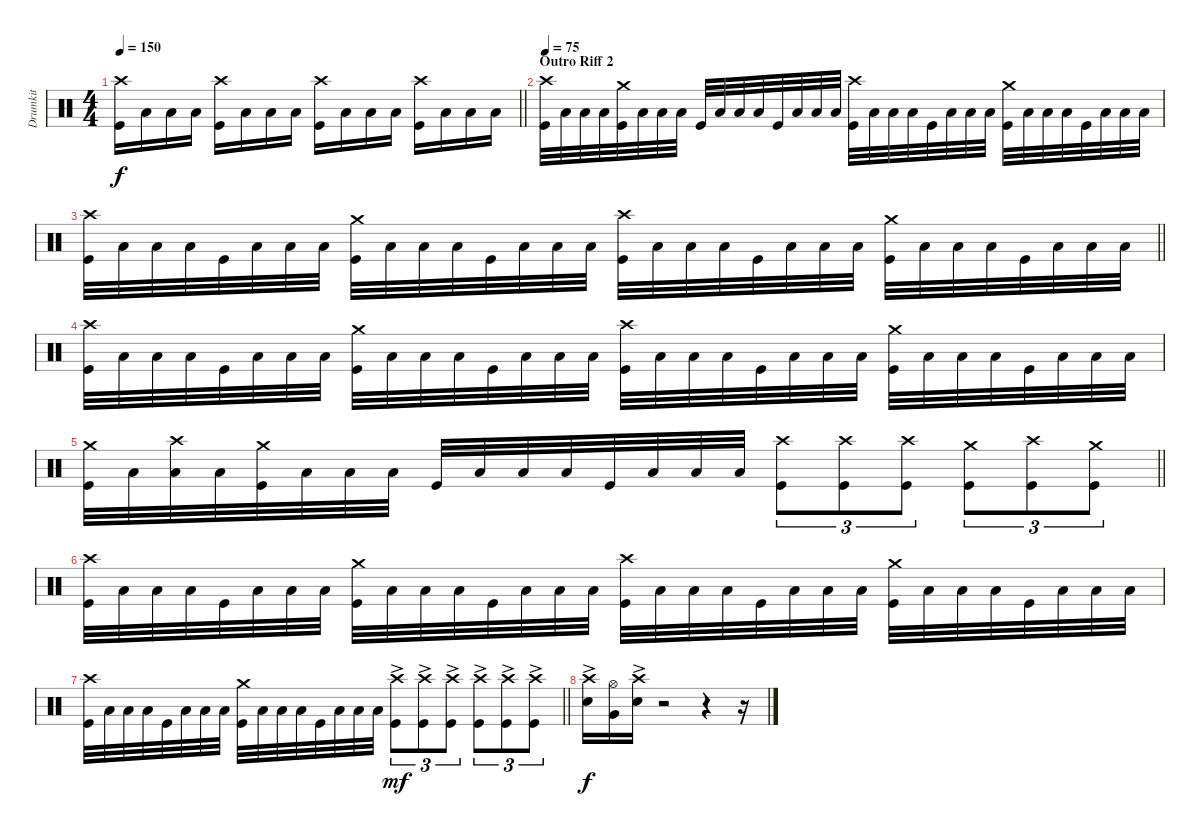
\track ("Drumkit" "Drumkit") {instrument percussion}
\staff {score}
\articulation defaults
\ts (4 4)
\tempo 150
\clef neutral
\barLineRight lightlight
\ks c
("Crash high (hit)" "Kick (hit)").16{dy f} "Low Tom (hit)".16 "Low Tom (hit)".16 "Low Tom (hit)".16 ("Crash high (hit)" "Kick (hit)").16 "Low Tom (hit)".16 "Low Tom (hit)".16 "Low Tom (hit)".16 ("Crash high (hit)" "Kick (hit)").16 "Low Tom (hit)".16 "Low Tom (hit)".16 "Low Tom (hit)".16 ("Crash high (hit)" "Kick (hit)").16 "Low Tom (hit)".16 "Low Tom (hit)".16 "Low Tom (hit)".16 |
\section ("" "Outro Riff 2")
\tempo 75
("Crash high (hit)" "Kick (hit)").32 "Low Tom (hit)".32 "Low Tom (hit)".32 "Low Tom (hit)".32 ("Crash medium (hit)" "Kick (hit)").32 "Low Tom (hit)".32 "Low Tom (hit)".32 "Low Tom (hit)".32 "Kick (hit)".32 "Low Tom (hit)".32 "Low Tom (hit)".32 "Low Tom (hit)".32 "Kick (hit)".32 "Low Tom (hit)".32 "Low Tom (hit)".32 "Low Tom (hit)".32 ("Crash high (hit)" "Kick (hit)").32 "Low Tom (hit)".32 "Low Tom (hit)".32 "Low Tom (hit)".32 "Kick (hit)".32 "Low Tom (hit)".32 "Low Tom (hit)".32 "Low Tom (hit)".32 ("Crash medium (hit)" "Kick (hit)").32 "Low Tom (hit)".32 "Low Tom (hit)".32 "Low Tom (hit)".32 "Kick (hit)".32 "Low Tom (hit)".32 "Low Tom (hit)".32 "Low Tom (hit)".32 |
\barLineRight lightlight
("Crash high (hit)" "Kick (hit)").32 "Low Tom (hit)".32 "Low Tom (hit)".32 "Low Tom (hit)".32 "Kick (hit)".32 "Low Tom (hit)".32 "Low Tom (hit)".32 "Low Tom (hit)".32 ("Crash medium (hit)" "Kick (hit)").32 "Low Tom (hit)".32 "Low Tom (hit)".32 "Low Tom (hit)".32 "Kick (hit)".32 "Low Tom (hit)".32 "Low Tom (hit)".32 "Low Tom (hit)".32 ("Crash high (hit)" "Kick (hit)").32 "Low Tom (hit)".32 "Low Tom (hit)".32 "Low Tom (hit)".32 "Kick (hit)".32 "Low Tom (hit)".32 "Low Tom (hit)".32 "Low Tom (hit)".32 ("Crash medium (hit)" "Kick (hit)").32 "Low Tom (hit)".32 "Low Tom (hit)".32 "Low Tom (hit)".32 "Kick (hit)".32 "Low Tom (hit)".32 "Low Tom (hit)".32 "Low Tom (hit)".32 |
("Crash high (hit)" "Kick (hit)").32 "Low Tom (hit)".32 "Low Tom (hit)".32 "Low Tom (hit)".32 "Kick (hit)".32 "Low Tom (hit)".32 "Low Tom (hit)".32 "Low Tom (hit)".32 ("Crash medium (hit)" "Kick (hit)").32 "Low Tom (hit)".32 "Low Tom (hit)".32 "Low Tom (hit)".32 "Kick (hit)".32 "Low Tom (hit)".32 "Low Tom (hit)".32 "Low Tom (hit)".32 ("Crash high (hit)" "Kick (hit)").32 "Low Tom (hit)".32 "Low Tom (hit)".32 "Low Tom (hit)".32 "Kick (hit)".32 "Low Tom (hit)".32 "Low Tom (hit)".32 "Low Tom (hit)".32 ("Crash medium (hit)" "Kick (hit)").32 "Low Tom (hit)".32 "Low Tom (hit)".32 "Low Tom (hit)".32 "Kick (hit)".32 "Low Tom (hit)".32 "Low Tom (hit)".32 "Low Tom (hit)".32 |
\barLineRight lightlight
("Crash medium (hit)" "Kick (hit)").32 "Low Tom (hit)".32 ("Crash high (hit)" "Low Tom (hit)").32 "Low Tom (hit)".32 ("Crash medium (hit)" "Kick (hit)").32 "Low Tom (hit)".32 "Low Tom (hit)".32 "Low Tom (hit)".32 "Kick (hit)".32 "Low Tom (hit)".32 "Low Tom (hit)".32 "Low Tom (hit)".32 "Kick (hit)".32 "Low Tom (hit)".32 "Low Tom (hit)".32 "Low Tom (hit)".32 ("Crash high (hit)" "Kick (hit)").8{tu (3 2)} ("Crash high (hit)" "Kick (hit)").8{tu (3 2)} ("Crash high (hit)" "Kick (hit)").8{tu (3 2)} ("Crash medium (hit)" "Kick (hit)").8{tu (3 2)} ("Crash high (hit)" "Kick (hit)").8{tu (3 2)} ("Crash medium (hit)" "Kick (hit)").8{tu (3 2)} |
("Crash high (hit)" "Kick (hit)").32 "Low Tom (hit)".32 "Low Tom (hit)".32 "Low Tom (hit)".32 "Kick (hit)".32 "Low Tom (hit)".32 "Low Tom (hit)".32 "Low Tom (hit)".32 ("Crash medium (hit)" "Kick (hit)").32 "Low Tom (hit)".32 "Low Tom (hit)".32 "Low Tom (hit)".32 "Kick (hit)".32 "Low Tom (hit)".32 "Low Tom (hit)".32 "Low Tom (hit)".32 ("Crash high (hit)" "Kick (hit)").32 "Low Tom (hit)".32 "Low Tom (hit)".32 "Low Tom (hit)".32 "Kick (hit)".32 "Low Tom (hit)".32 "Low Tom (hit)".32 "Low Tom (hit)".32 ("Crash medium (hit)" "Kick (hit)").32 "Low Tom (hit)".32 "Low Tom (hit)".32 "Low Tom (hit)".32 "Kick (hit)".32 "Low Tom (hit)".32 "Low Tom (hit)".32 "Low Tom (hit)".32 |
\barLineRight lightlight
("Crash high (hit)" "Kick (hit)").32 "Low Tom (hit)".32 "Low Tom (hit)".32 "Low Tom (hit)".32 "Kick (hit)".32 "Low Tom (hit)".32 "Low Tom (hit)".32 "Low Tom (hit)".32 ("Crash medium (hit)" "Kick (hit)").32 "Low Tom (hit)".32 "Low Tom (hit)".32 "Low Tom (hit)".32 "Kick (hit)".32 "Low Tom (hit)".32 "Low Tom (hit)".32 "Low Tom (hit)".32 ("Crash high (hit)"{ac} "Kick (hit)"{ac}).8{tu (3 2) dy mf} ("Crash high (hit)"{ac} "Kick (hit)"{ac}).8{tu (3 2)} ("Crash high (hit)"{ac} "Kick (hit)"{ac}).8{tu (3 2)} ("Crash high (hit)"{ac} "Kick (hit)"{ac}).8{tu (3 2)} ("Crash high (hit)"{ac} "Kick (hit)"{ac}).8{tu (3 2)} ("Crash high (hit)"{ac} "Kick (hit)"{ac}).8{tu (3 2)} |
("Crash high (hit)" "Snare (hit) 2"{ac}).16{dy f} ("Hi-Hat (open)" "Very Low Tom (hit)").16 ("Crash high (hit)" "Snare (hit) 2"{ac}).16 r.2 r.4 r.16
